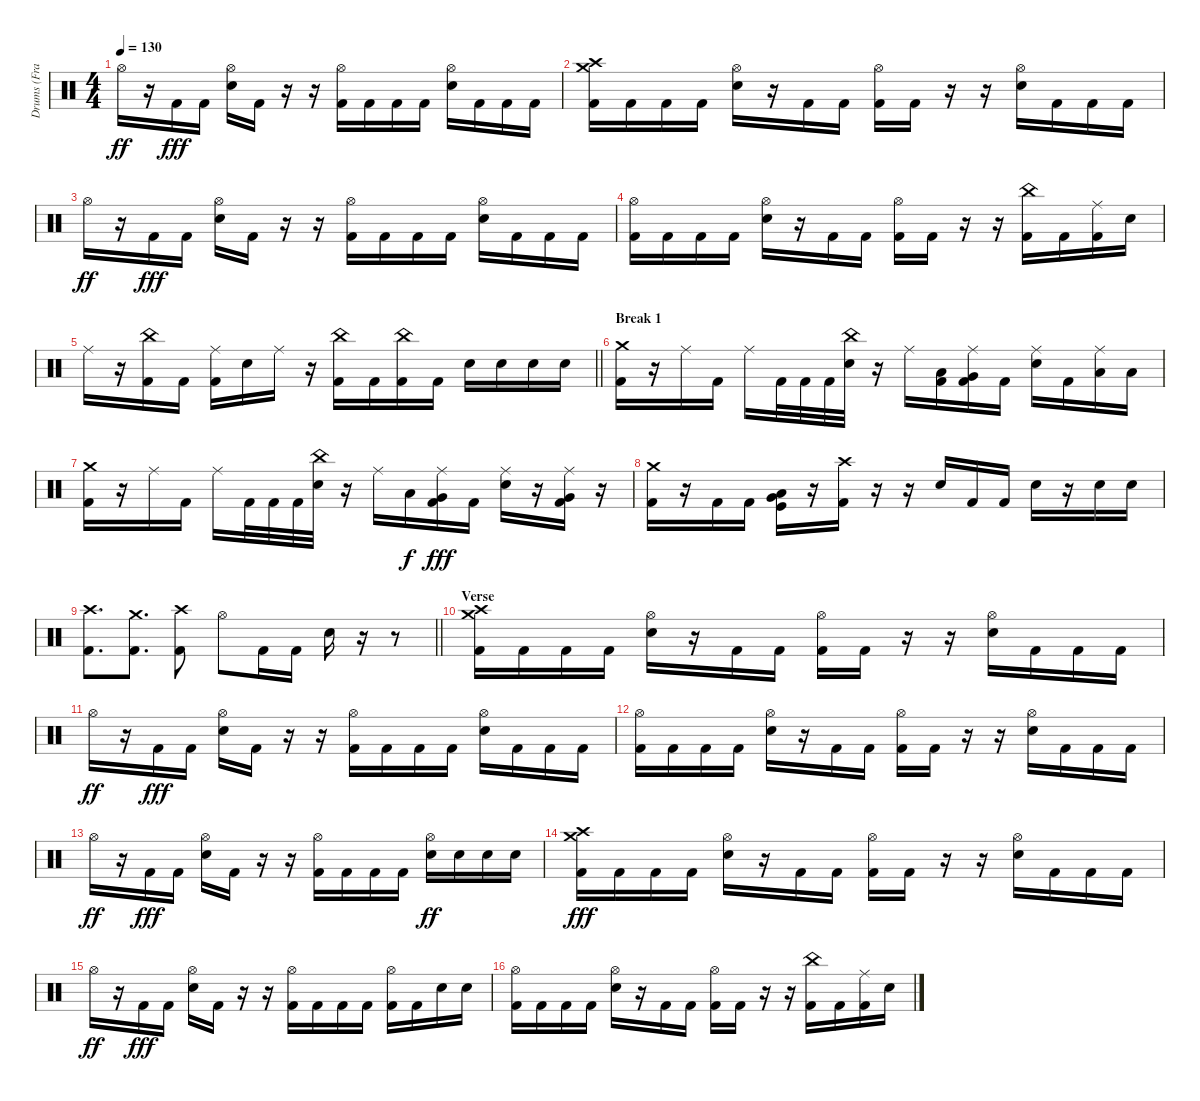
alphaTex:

\track ("Drums (Franky)" "Drums (Fra") {instrument percussion}
\staff {score}
\articulation defaults
\ts (4 4)
\tempo 130
\clef neutral
\ks c "Hi-Hat (open)".16{dy ff}
r.16 "Kick (hit) 2".16{dy fff} "Kick (hit) 2".16 ("Hi-Hat (open)" "Electric Snare (hit)").16 "Kick (hit) 2".16 r.16 r.16 ("Hi-Hat (open)" "Kick (hit) 2").16 "Kick (hit) 2".16 "Kick (hit) 2".16 "Kick (hit) 2".16 ("Hi-Hat (open)" "Electric Snare (hit)").16 "Kick (hit) 2".16 "Kick (hit) 2".16 "Kick (hit) 2".16 |
("Crash medium (hit)" "Crash high (hit)" "Kick (hit) 2").16 "Kick (hit) 2".16 "Kick (hit) 2".16 "Kick (hit) 2".16 ("Hi-Hat (open)" "Electric Snare (hit)").16 r.16 "Kick (hit) 2".16 "Kick (hit) 2".16 ("Hi-Hat (open)" "Kick (hit) 2").16 "Kick (hit) 2".16 r.16 r.16 ("Hi-Hat (open)" "Electric Snare (hit)").16 "Kick (hit) 2".16 "Kick (hit) 2".16 "Kick (hit) 2".16 |
"Hi-Hat (open)".16{dy ff} r.16 "Kick (hit) 2".16{dy fff} "Kick (hit) 2".16 ("Hi-Hat (open)" "Electric Snare (hit)").16 "Kick (hit) 2".16 r.16 r.16 ("Hi-Hat (open)" "Kick (hit) 2").16 "Kick (hit) 2".16 "Kick (hit) 2".16 "Kick (hit) 2".16 ("Hi-Hat (open)" "Electric Snare (hit)").16 "Kick (hit) 2".16 "Kick (hit) 2".16 "Kick (hit) 2".16 |
("Hi-Hat (open)" "Kick (hit) 2").16 "Kick (hit) 2".16 "Kick (hit) 2".16 "Kick (hit) 2".16 ("Hi-Hat (open)" "Electric Snare (hit)").16 r.16 "Kick (hit) 2".16 "Kick (hit) 2".16 ("Hi-Hat (open)" "Kick (hit) 2").16 "Kick (hit) 2".16 r.16 r.16 ("China (hit)" "Kick (hit) 2").16 "Kick (hit) 2".16 ("Ride (middle)" "Kick (hit) 2").16 "Electric Snare (hit)".16 |
\barLineRight lightlight "Ride (middle)".16
r.16 ("China (hit)" "Kick (hit) 2").16 "Kick (hit) 2".16 ("Ride (middle)" "Kick (hit) 2").16 "Electric Snare (hit)".16 "Ride (middle)".16 r.16 ("China (hit)" "Kick (hit) 2").16 "Kick (hit) 2".16 ("China (hit)" "Kick (hit) 2").16 "Kick (hit) 2".16 "Electric Snare (hit)".16 "Electric Snare (hit)".16 "Electric Snare (hit)".16 "Electric Snare (hit)".16 |
\section ("" "Break 1")
("Crash medium (hit)" "Kick (hit) 2").16 r.16 "Ride (middle)".16 "Kick (hit) 2".16 "Ride (middle)".16 "Kick (hit) 2".32 "Kick (hit) 2".32 "Kick (hit) 2".32 ("China (hit)" "Electric Snare (hit)").32 r.16 "Ride (middle)".16 ("Low Tom (hit)" "Kick (hit) 2").16 ("Ride (middle)" "Very Low Tom (hit)" "Kick (hit) 2").16 "Kick (hit) 2".16 ("Ride (middle)" "Electric Snare (hit)").16 "Kick (hit) 2".16 ("Ride (middle)" "Low Tom (hit)").16 "Low Tom (hit)".16 |
("Crash medium (hit)" "Kick (hit) 2").16 r.16 "Ride (middle)".16 "Kick (hit) 2".16 "Ride (middle)".16 "Kick (hit) 2".32 "Kick (hit) 2".32 "Kick (hit) 2".32 ("China (hit)" "Electric Snare (hit)").32 r.16 "Ride (middle)".16 "Low Tom (hit)".16{dy f} ("Ride (middle)" "Very Low Tom (hit)" "Kick (hit) 2").16{dy fff} "Kick (hit) 2".16 ("Ride (middle)" "Electric Snare (hit)").16 r.16 ("Ride (middle)" "Very Low Tom (hit)" "Kick (hit) 2").16 r.16 |
("Crash medium (hit)" "Kick (hit) 2").16 r.16 "Kick (hit) 2".16 "Kick (hit) 2".16 ("Low Tom (hit)" "Very Low Tom (hit)" "Kick (hit)").16 r.16 ("Crash high (hit)" "Kick (hit) 2").16 r.16 r.16 "Electric Snare (hit)".16 "Kick (hit) 2".16 "Kick (hit) 2".16 "Electric Snare (hit)".16 r.16 "Electric Snare (hit)".16 "Electric Snare (hit)".16 |
\barLineRight lightlight
("Crash high (hit)" "Kick (hit) 2").8{d} ("Crash medium (hit)" "Kick (hit) 2").8{d} ("Crash high (hit)" "Kick (hit) 2").8 "Hi-Hat (open)".8 "Kick (hit) 2".16 "Kick (hit) 2".16 "Electric Snare (hit)".16 r.16 r.8 |
\section ("" "Verse")
("Crash medium (hit)" "Crash high (hit)" "Kick (hit) 2").16 "Kick (hit) 2".16 "Kick (hit) 2".16 "Kick (hit) 2".16 ("Hi-Hat (open)" "Electric Snare (hit)").16 r.16 "Kick (hit) 2".16 "Kick (hit) 2".16 ("Hi-Hat (open)" "Kick (hit) 2").16 "Kick (hit) 2".16 r.16 r.16 ("Hi-Hat (open)" "Electric Snare (hit)").16 "Kick (hit) 2".16 "Kick (hit) 2".16 "Kick (hit) 2".16 |
"Hi-Hat (open)".16{dy ff} r.16 "Kick (hit) 2".16{dy fff} "Kick (hit) 2".16 ("Hi-Hat (open)" "Electric Snare (hit)").16 "Kick (hit) 2".16 r.16 r.16 ("Hi-Hat (open)" "Kick (hit) 2").16 "Kick (hit) 2".16 "Kick (hit) 2".16 "Kick (hit) 2".16 ("Hi-Hat (open)" "Electric Snare (hit)").16 "Kick (hit) 2".16 "Kick (hit) 2".16 "Kick (hit) 2".16 |
("Hi-Hat (open)" "Kick (hit) 2").16 "Kick (hit) 2".16 "Kick (hit) 2".16 "Kick (hit) 2".16 ("Hi-Hat (open)" "Electric Snare (hit)").16 r.16 "Kick (hit) 2".16 "Kick (hit) 2".16 ("Hi-Hat (open)" "Kick (hit) 2").16 "Kick (hit) 2".16 r.16 r.16 ("Hi-Hat (open)" "Electric Snare (hit)").16 "Kick (hit) 2".16 "Kick (hit) 2".16 "Kick (hit) 2".16 |
"Hi-Hat (open)".16{dy ff} r.16 "Kick (hit) 2".16{dy fff} "Kick (hit) 2".16 ("Hi-Hat (open)" "Electric Snare (hit)").16 "Kick (hit) 2".16 r.16 r.16 ("Hi-Hat (open)" "Kick (hit) 2").16 "Kick (hit) 2".16 "Kick (hit) 2".16 "Kick (hit) 2".16 ("Hi-Hat (open)" "Electric Snare (hit)").16{dy ff} "Electric Snare (hit)".16 "Electric Snare (hit)".16 "Electric Snare (hit)".16 |
("Crash medium (hit)" "Crash high (hit)" "Kick (hit) 2").16{dy fff} "Kick (hit) 2".16 "Kick (hit) 2".16 "Kick (hit) 2".16 ("Hi-Hat (open)" "Electric Snare (hit)").16 r.16 "Kick (hit) 2".16 "Kick (hit) 2".16 ("Hi-Hat (open)" "Kick (hit) 2").16 "Kick (hit) 2".16 r.16 r.16 ("Hi-Hat (open)" "Electric Snare (hit)").16 "Kick (hit) 2".16 "Kick (hit) 2".16 "Kick (hit) 2".16 |
"Hi-Hat (open)".16{dy ff} r.16 "Kick (hit) 2".16{dy fff} "Kick (hit) 2".16 ("Hi-Hat (open)" "Electric Snare (hit)").16 "Kick (hit) 2".16 r.16 r.16 ("Hi-Hat (open)" "Kick (hit) 2").16 "Kick (hit) 2".16 "Kick (hit) 2".16 "Kick (hit) 2".16 ("Hi-Hat (open)" "Kick (hit) 2").16 "Kick (hit) 2".16 "Electric Snare (hit)".16 "Electric Snare (hit)".16 |
("Hi-Hat (open)" "Kick (hit) 2").16 "Kick (hit) 2".16 "Kick (hit) 2".16 "Kick (hit) 2".16 ("Hi-Hat (open)" "Electric Snare (hit)").16 r.16 "Kick (hit) 2".16 "Kick (hit) 2".16 ("Hi-Hat (open)" "Kick (hit) 2").16 "Kick (hit) 2".16 r.16 r.16 ("China (hit)" "Kick (hit) 2").16 "Kick (hit) 2".16 ("Ride (middle)" "Kick (hit) 2").16 "Electric Snare (hit)".16
